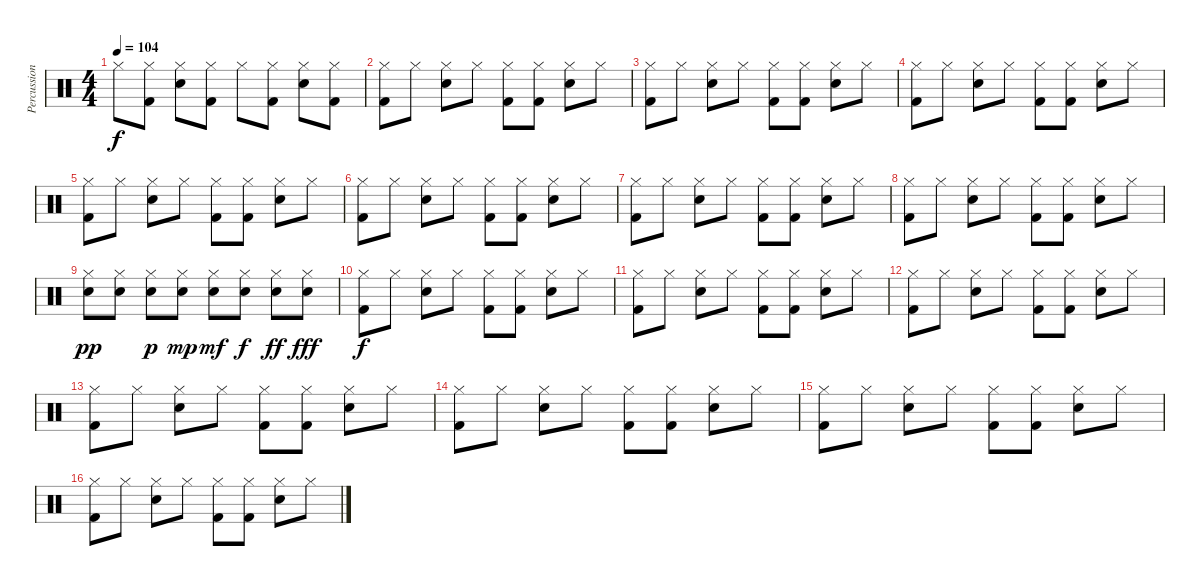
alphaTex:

\track ("Percussions" "Percussion") {instrument percussion}
\staff {score}
\articulation defaults
\ts (4 4)
\tempo 104
\clef neutral
\ks c "Hi-Hat (closed)".8{dy f}
("Hi-Hat (closed)" "Kick (hit) 2").8 ("Hi-Hat (closed)" "Snare (hit) 2").8 ("Hi-Hat (closed)" "Kick (hit) 2").8 "Hi-Hat (closed)".8 ("Hi-Hat (closed)" "Kick (hit) 2").8 ("Hi-Hat (closed)" "Snare (hit) 2").8 ("Hi-Hat (closed)" "Kick (hit) 2").8 |
("Hi-Hat (closed)" "Kick (hit) 2").8 "Hi-Hat (closed)".8 ("Hi-Hat (closed)" "Snare (hit) 2").8 "Hi-Hat (closed)".8 ("Hi-Hat (closed)" "Kick (hit) 2").8 ("Hi-Hat (closed)" "Kick (hit) 2").8 ("Hi-Hat (closed)" "Snare (hit) 2").8 "Hi-Hat (closed)".8 |
("Hi-Hat (closed)" "Kick (hit) 2").8 "Hi-Hat (closed)".8 ("Hi-Hat (closed)" "Snare (hit) 2").8 "Hi-Hat (closed)".8 ("Hi-Hat (closed)" "Kick (hit) 2").8 ("Hi-Hat (closed)" "Kick (hit) 2").8 ("Hi-Hat (closed)" "Snare (hit) 2").8 "Hi-Hat (closed)".8 |
("Hi-Hat (closed)" "Kick (hit) 2").8 "Hi-Hat (closed)".8 ("Hi-Hat (closed)" "Snare (hit) 2").8 "Hi-Hat (closed)".8 ("Hi-Hat (closed)" "Kick (hit) 2").8 ("Hi-Hat (closed)" "Kick (hit) 2").8 ("Hi-Hat (closed)" "Snare (hit) 2").8 "Hi-Hat (closed)".8 |
("Hi-Hat (closed)" "Kick (hit) 2").8 "Hi-Hat (closed)".8 ("Hi-Hat (closed)" "Snare (hit) 2").8 "Hi-Hat (closed)".8 ("Hi-Hat (closed)" "Kick (hit) 2").8 ("Hi-Hat (closed)" "Kick (hit) 2").8 ("Hi-Hat (closed)" "Snare (hit) 2").8 "Hi-Hat (closed)".8 |
("Hi-Hat (closed)" "Kick (hit) 2").8 "Hi-Hat (closed)".8 ("Hi-Hat (closed)" "Snare (hit) 2").8 "Hi-Hat (closed)".8 ("Hi-Hat (closed)" "Kick (hit) 2").8 ("Hi-Hat (closed)" "Kick (hit) 2").8 ("Hi-Hat (closed)" "Snare (hit) 2").8 "Hi-Hat (closed)".8 |
("Hi-Hat (closed)" "Kick (hit) 2").8 "Hi-Hat (closed)".8 ("Hi-Hat (closed)" "Snare (hit) 2").8 "Hi-Hat (closed)".8 ("Hi-Hat (closed)" "Kick (hit) 2").8 ("Hi-Hat (closed)" "Kick (hit) 2").8 ("Hi-Hat (closed)" "Snare (hit) 2").8 "Hi-Hat (closed)".8 |
("Hi-Hat (closed)" "Kick (hit) 2").8 "Hi-Hat (closed)".8 ("Hi-Hat (closed)" "Snare (hit) 2").8 "Hi-Hat (closed)".8 ("Hi-Hat (closed)" "Kick (hit) 2").8 ("Hi-Hat (closed)" "Kick (hit) 2").8 ("Hi-Hat (closed)" "Snare (hit) 2").8 "Hi-Hat (closed)".8 |
("Hi-Hat (closed)" "Snare (hit) 2").8{dy pp} ("Hi-Hat (closed)" "Snare (hit) 2").8 ("Hi-Hat (closed)" "Snare (hit) 2").8{dy p} ("Hi-Hat (closed)" "Snare (hit) 2").8{dy mp} ("Hi-Hat (closed)" "Snare (hit) 2").8{dy mf} ("Hi-Hat (closed)" "Snare (hit) 2").8{dy f} ("Hi-Hat (closed)" "Snare (hit) 2").8{dy ff} ("Hi-Hat (closed)" "Snare (hit) 2").8{dy fff} |
("Hi-Hat (closed)" "Kick (hit) 2").8{dy f} "Hi-Hat (closed)".8 ("Hi-Hat (closed)" "Snare (hit) 2").8 "Hi-Hat (closed)".8 ("Hi-Hat (closed)" "Kick (hit) 2").8 ("Hi-Hat (closed)" "Kick (hit) 2").8 ("Hi-Hat (closed)" "Snare (hit) 2").8 "Hi-Hat (closed)".8 |
("Hi-Hat (closed)" "Kick (hit) 2").8 "Hi-Hat (closed)".8 ("Hi-Hat (closed)" "Snare (hit) 2").8 "Hi-Hat (closed)".8 ("Hi-Hat (closed)" "Kick (hit) 2").8 ("Hi-Hat (closed)" "Kick (hit) 2").8 ("Hi-Hat (closed)" "Snare (hit) 2").8 "Hi-Hat (closed)".8 |
("Hi-Hat (closed)" "Kick (hit) 2").8 "Hi-Hat (closed)".8 ("Hi-Hat (closed)" "Snare (hit) 2").8 "Hi-Hat (closed)".8 ("Hi-Hat (closed)" "Kick (hit) 2").8 ("Hi-Hat (closed)" "Kick (hit) 2").8 ("Hi-Hat (closed)" "Snare (hit) 2").8 "Hi-Hat (closed)".8 |
("Hi-Hat (closed)" "Kick (hit) 2").8 "Hi-Hat (closed)".8 ("Hi-Hat (closed)" "Snare (hit) 2").8 "Hi-Hat (closed)".8 ("Hi-Hat (closed)" "Kick (hit) 2").8 ("Hi-Hat (closed)" "Kick (hit) 2").8 ("Hi-Hat (closed)" "Snare (hit) 2").8 "Hi-Hat (closed)".8 |
("Hi-Hat (closed)" "Kick (hit) 2").8 "Hi-Hat (closed)".8 ("Hi-Hat (closed)" "Snare (hit) 2").8 "Hi-Hat (closed)".8 ("Hi-Hat (closed)" "Kick (hit) 2").8 ("Hi-Hat (closed)" "Kick (hit) 2").8 ("Hi-Hat (closed)" "Snare (hit) 2").8 "Hi-Hat (closed)".8 |
("Hi-Hat (closed)" "Kick (hit) 2").8 "Hi-Hat (closed)".8 ("Hi-Hat (closed)" "Snare (hit) 2").8 "Hi-Hat (closed)".8 ("Hi-Hat (closed)" "Kick (hit) 2").8 ("Hi-Hat (closed)" "Kick (hit) 2").8 ("Hi-Hat (closed)" "Snare (hit) 2").8 "Hi-Hat (closed)".8 |
("Hi-Hat (closed)" "Kick (hit) 2").8 "Hi-Hat (closed)".8 ("Hi-Hat (closed)" "Snare (hit) 2").8 "Hi-Hat (closed)".8 ("Hi-Hat (closed)" "Kick (hit) 2").8 ("Hi-Hat (closed)" "Kick (hit) 2").8 ("Hi-Hat (closed)" "Snare (hit) 2").8 "Hi-Hat (closed)".8
